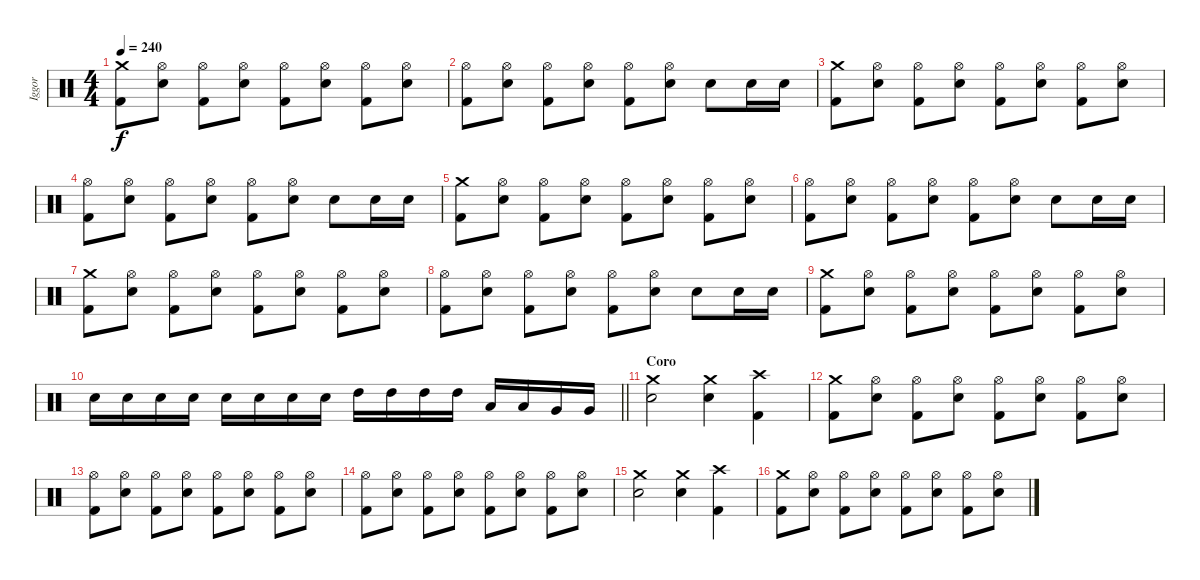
\track ("Iggor" "Iggor") {instrument percussion}
\staff {score}
\articulation defaults
\ts (4 4)
\tempo 240
\clef neutral
\ks c
("Crash medium (hit)" "Kick (hit) 2").8{dy f} ("Hi-Hat (open)" "Snare (hit) 2").8 ("Hi-Hat (open)" "Kick (hit) 2").8 ("Hi-Hat (open)" "Snare (hit) 2").8 ("Hi-Hat (open)" "Kick (hit) 2").8 ("Hi-Hat (open)" "Snare (hit) 2").8 ("Hi-Hat (open)" "Kick (hit) 2").8 ("Hi-Hat (open)" "Snare (hit) 2").8 |
("Hi-Hat (open)" "Kick (hit) 2").8 ("Hi-Hat (open)" "Snare (hit) 2").8 ("Hi-Hat (open)" "Kick (hit) 2").8 ("Hi-Hat (open)" "Snare (hit) 2").8 ("Hi-Hat (open)" "Kick (hit) 2").8 ("Hi-Hat (open)" "Snare (hit) 2").8 "Snare (hit) 2".8 "Snare (hit) 2".16 "Snare (hit) 2".16 |
("Crash medium (hit)" "Kick (hit) 2").8 ("Hi-Hat (open)" "Snare (hit) 2").8 ("Hi-Hat (open)" "Kick (hit) 2").8 ("Hi-Hat (open)" "Snare (hit) 2").8 ("Hi-Hat (open)" "Kick (hit) 2").8 ("Hi-Hat (open)" "Snare (hit) 2").8 ("Hi-Hat (open)" "Kick (hit) 2").8 ("Hi-Hat (open)" "Snare (hit) 2").8 |
("Hi-Hat (open)" "Kick (hit) 2").8 ("Hi-Hat (open)" "Snare (hit) 2").8 ("Hi-Hat (open)" "Kick (hit) 2").8 ("Hi-Hat (open)" "Snare (hit) 2").8 ("Hi-Hat (open)" "Kick (hit) 2").8 ("Hi-Hat (open)" "Snare (hit) 2").8 "Snare (hit) 2".8 "Snare (hit) 2".16 "Snare (hit) 2".16 |
("Crash medium (hit)" "Kick (hit) 2").8 ("Hi-Hat (open)" "Snare (hit) 2").8 ("Hi-Hat (open)" "Kick (hit) 2").8 ("Hi-Hat (open)" "Snare (hit) 2").8 ("Hi-Hat (open)" "Kick (hit) 2").8 ("Hi-Hat (open)" "Snare (hit) 2").8 ("Hi-Hat (open)" "Kick (hit) 2").8 ("Hi-Hat (open)" "Snare (hit) 2").8 |
("Hi-Hat (open)" "Kick (hit) 2").8 ("Hi-Hat (open)" "Snare (hit) 2").8 ("Hi-Hat (open)" "Kick (hit) 2").8 ("Hi-Hat (open)" "Snare (hit) 2").8 ("Hi-Hat (open)" "Kick (hit) 2").8 ("Hi-Hat (open)" "Snare (hit) 2").8 "Snare (hit) 2".8 "Snare (hit) 2".16 "Snare (hit) 2".16 |
("Crash medium (hit)" "Kick (hit) 2").8 ("Hi-Hat (open)" "Snare (hit) 2").8 ("Hi-Hat (open)" "Kick (hit) 2").8 ("Hi-Hat (open)" "Snare (hit) 2").8 ("Hi-Hat (open)" "Kick (hit) 2").8 ("Hi-Hat (open)" "Snare (hit) 2").8 ("Hi-Hat (open)" "Kick (hit) 2").8 ("Hi-Hat (open)" "Snare (hit) 2").8 |
("Hi-Hat (open)" "Kick (hit) 2").8 ("Hi-Hat (open)" "Snare (hit) 2").8 ("Hi-Hat (open)" "Kick (hit) 2").8 ("Hi-Hat (open)" "Snare (hit) 2").8 ("Hi-Hat (open)" "Kick (hit) 2").8 ("Hi-Hat (open)" "Snare (hit) 2").8 "Snare (hit) 2".8 "Snare (hit) 2".16 "Snare (hit) 2".16 |
("Crash medium (hit)" "Kick (hit) 2").8 ("Hi-Hat (open)" "Snare (hit) 2").8 ("Hi-Hat (open)" "Kick (hit) 2").8 ("Hi-Hat (open)" "Snare (hit) 2").8 ("Hi-Hat (open)" "Kick (hit) 2").8 ("Hi-Hat (open)" "Snare (hit) 2").8 ("Hi-Hat (open)" "Kick (hit) 2").8 ("Hi-Hat (open)" "Snare (hit) 2").8 |
\barLineRight lightlight "Snare (hit) 2".16 "Snare (hit) 2".16 "Snare (hit) 2".16 "Snare (hit) 2".16 "Snare (hit) 2".16 "Snare (hit) 2".16 "Snare (hit) 2".16 "Snare (hit) 2".16 "High Tom (hit)".16 "High Tom (hit)".16 "High Tom (hit)".16 "High Tom (hit)".16 "Low Tom (hit)".16 "Low Tom (hit)".16 "Very Low Tom (hit)".16 "Very Low Tom (hit)".16
|
\section ("" "Coro")
("Crash medium (hit)" "Snare (hit) 2").2 ("Crash medium (hit)" "Snare (hit) 2").4 ("Crash high (hit)" "Kick (hit) 2").4 |
("Crash medium (hit)" "Kick (hit) 2").8 ("Hi-Hat (open)" "Snare (hit) 2").8 ("Hi-Hat (open)" "Kick (hit) 2").8 ("Hi-Hat (open)" "Snare (hit) 2").8 ("Hi-Hat (open)" "Kick (hit) 2").8 ("Hi-Hat (open)" "Snare (hit) 2").8 ("Hi-Hat (open)" "Kick (hit) 2").8 ("Hi-Hat (open)" "Snare (hit) 2").8 |
("Hi-Hat (open)" "Kick (hit) 2").8 ("Hi-Hat (open)" "Snare (hit) 2").8 ("Hi-Hat (open)" "Kick (hit) 2").8 ("Hi-Hat (open)" "Snare (hit) 2").8 ("Hi-Hat (open)" "Kick (hit) 2").8 ("Hi-Hat (open)" "Snare (hit) 2").8 ("Hi-Hat (open)" "Kick (hit) 2").8 ("Hi-Hat (open)" "Snare (hit) 2").8 |
("Hi-Hat (open)" "Kick (hit) 2").8 ("Hi-Hat (open)" "Snare (hit) 2").8 ("Hi-Hat (open)" "Kick (hit) 2").8 ("Hi-Hat (open)" "Snare (hit) 2").8 ("Hi-Hat (open)" "Kick (hit) 2").8 ("Hi-Hat (open)" "Snare (hit) 2").8 ("Hi-Hat (open)" "Kick (hit) 2").8 ("Hi-Hat (open)" "Snare (hit) 2").8 |
("Crash medium (hit)" "Snare (hit) 2").2 ("Crash medium (hit)" "Snare (hit) 2").4 ("Crash high (hit)" "Kick (hit) 2").4 |
("Crash medium (hit)" "Kick (hit) 2").8 ("Hi-Hat (open)" "Snare (hit) 2").8 ("Hi-Hat (open)" "Kick (hit) 2").8 ("Hi-Hat (open)" "Snare (hit) 2").8 ("Hi-Hat (open)" "Kick (hit) 2").8 ("Hi-Hat (open)" "Snare (hit) 2").8 ("Hi-Hat (open)" "Kick (hit) 2").8 ("Hi-Hat (open)" "Snare (hit) 2").8
